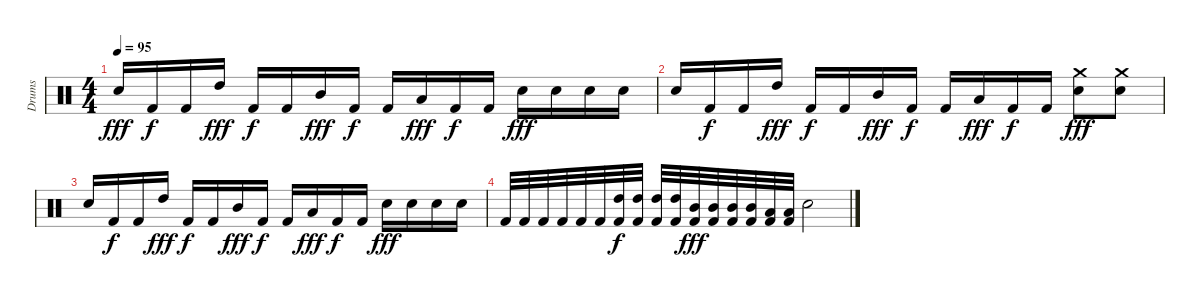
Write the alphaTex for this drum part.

\track ("Drums" "Drums") {instrument percussion}
\staff {score}
\articulation defaults
\ts (4 4)
\tempo 95
\clef neutral
\ks c "Snare (hit) 2".16{dy fff} "Kick (hit) 2".16{dy f} "Kick (hit) 2".16 "High Tom (hit)".16{dy fff} "Kick (hit) 2".16{dy f} "Kick (hit) 2".16 "Mid Tom (hit)".16{dy fff} "Kick (hit) 2".16{dy f} "Kick (hit) 2".16 "Low Tom (hit)".16{dy fff} "Kick (hit) 2".16{dy f} "Kick (hit) 2".16 "Snare (hit) 2".16{dy fff} "Snare (hit) 2".16 "Snare (hit) 2".16 "Snare (hit) 2".16
|
"Snare (hit) 2".16 "Kick (hit) 2".16{dy f} "Kick (hit) 2".16 "High Tom (hit)".16{dy fff} "Kick (hit) 2".16{dy f} "Kick (hit) 2".16 "Mid Tom (hit)".16{dy fff} "Kick (hit) 2".16{dy f} "Kick (hit) 2".16 "Low Tom (hit)".16{dy fff} "Kick (hit) 2".16{dy f} "Kick (hit) 2".16 ("Snare (hit) 2" "Crash medium (hit)").8{dy fff} ("Snare (hit) 2" "Crash medium (hit)").8 |
"Snare (hit) 2".16 "Kick (hit) 2".16{dy f} "Kick (hit) 2".16 "High Tom (hit)".16{dy fff} "Kick (hit) 2".16{dy f} "Kick (hit) 2".16 "Mid Tom (hit)".16{dy fff} "Kick (hit) 2".16{dy f} "Kick (hit) 2".16 "Low Tom (hit)".16{dy fff} "Kick (hit) 2".16{dy f} "Kick (hit) 2".16 "Snare (hit) 2".16{dy fff} "Snare (hit) 2".16 "Snare (hit) 2".16 "Snare (hit) 2".16 |
"Kick (hit) 2".32 "Kick (hit) 2".32 "Kick (hit) 2".32 "Kick (hit) 2".32 "Kick (hit) 2".32 "Kick (hit) 2".32 ("High Tom (hit)" "Kick (hit) 2").32{dy f} ("High Tom (hit)" "Kick (hit) 2").32 ("High Tom (hit)" "Kick (hit) 2").32 ("High Tom (hit)" "Kick (hit) 2").32 ("Mid Tom (hit)" "Kick (hit) 2").32{dy fff} ("Mid Tom (hit)" "Kick (hit) 2").32 ("Mid Tom (hit)" "Kick (hit) 2").32 ("Mid Tom (hit)" "Kick (hit) 2").32 ("Low Tom (hit)" "Kick (hit) 2").32 ("Low Tom (hit)" "Kick (hit) 2").32 "Snare (hit) 2".2
